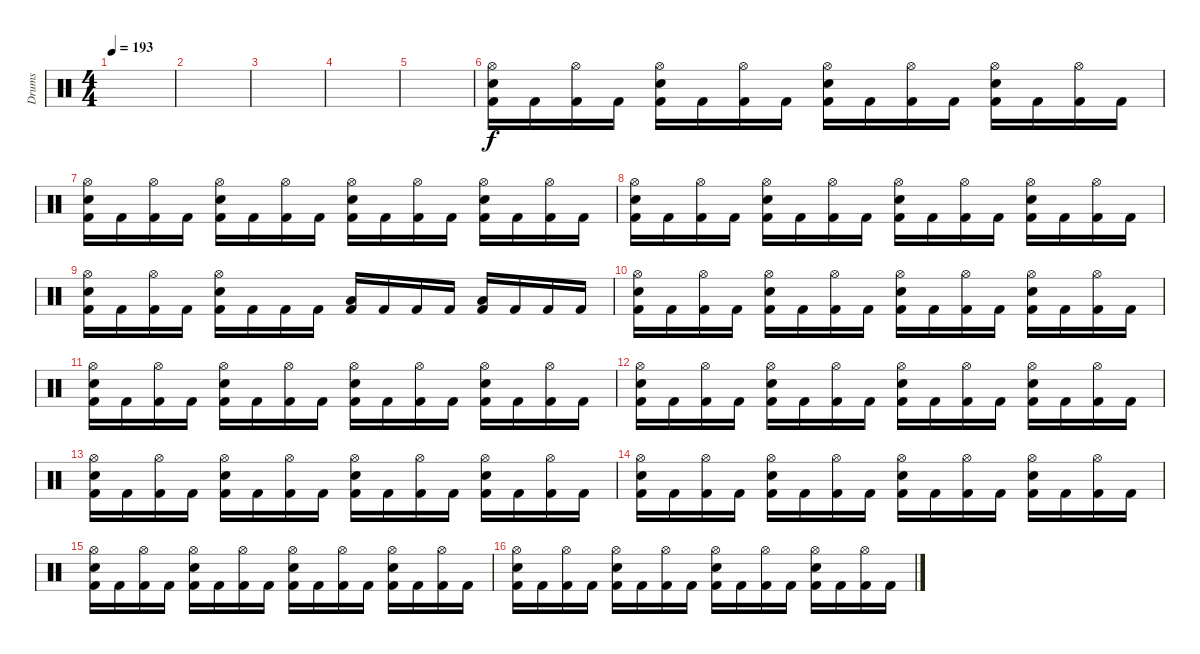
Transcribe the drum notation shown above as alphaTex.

\track ("Drums" "Drums") {instrument percussion}
\staff {score}
\articulation defaults
\ts (4 4)
\tempo 193
\clef neutral
\ks c
|
|
|
|
|
("Hi-Hat (open)" "Snare (hit) 2" "Kick (hit) 2").16 "Kick (hit) 2".16 ("Hi-Hat (open)" "Kick (hit) 2").16 "Kick (hit) 2".16 ("Hi-Hat (open)" "Snare (hit) 2" "Kick (hit) 2").16 "Kick (hit) 2".16 ("Hi-Hat (open)" "Kick (hit) 2").16 "Kick (hit) 2".16 ("Hi-Hat (open)" "Snare (hit) 2" "Kick (hit) 2").16 "Kick (hit) 2".16 ("Hi-Hat (open)" "Kick (hit) 2").16 "Kick (hit) 2".16 ("Hi-Hat (open)" "Snare (hit) 2" "Kick (hit) 2").16 "Kick (hit) 2".16 ("Hi-Hat (open)" "Kick (hit) 2").16 "Kick (hit) 2".16 |
("Hi-Hat (open)" "Snare (hit) 2" "Kick (hit) 2").16 "Kick (hit) 2".16 ("Hi-Hat (open)" "Kick (hit) 2").16 "Kick (hit) 2".16 ("Hi-Hat (open)" "Snare (hit) 2" "Kick (hit) 2").16 "Kick (hit) 2".16 ("Hi-Hat (open)" "Kick (hit) 2").16 "Kick (hit) 2".16 ("Hi-Hat (open)" "Snare (hit) 2" "Kick (hit) 2").16 "Kick (hit) 2".16 ("Hi-Hat (open)" "Kick (hit) 2").16 "Kick (hit) 2".16 ("Hi-Hat (open)" "Snare (hit) 2" "Kick (hit) 2").16 "Kick (hit) 2".16 ("Hi-Hat (open)" "Kick (hit) 2").16 "Kick (hit) 2".16 |
("Hi-Hat (open)" "Snare (hit) 2" "Kick (hit) 2").16 "Kick (hit) 2".16 ("Hi-Hat (open)" "Kick (hit) 2").16 "Kick (hit) 2".16 ("Hi-Hat (open)" "Snare (hit) 2" "Kick (hit) 2").16 "Kick (hit) 2".16 ("Hi-Hat (open)" "Kick (hit) 2").16 "Kick (hit) 2".16 ("Hi-Hat (open)" "Snare (hit) 2" "Kick (hit) 2").16 "Kick (hit) 2".16 ("Hi-Hat (open)" "Kick (hit) 2").16 "Kick (hit) 2".16 ("Hi-Hat (open)" "Snare (hit) 2" "Kick (hit) 2").16 "Kick (hit) 2".16 ("Hi-Hat (open)" "Kick (hit) 2").16 "Kick (hit) 2".16 |
("Hi-Hat (open)" "Snare (hit) 2" "Kick (hit) 2").16 "Kick (hit) 2".16 ("Hi-Hat (open)" "Kick (hit) 2").16 "Kick (hit) 2".16 ("Hi-Hat (open)" "Snare (hit) 2" "Kick (hit) 2").16 "Kick (hit) 2".16 "Kick (hit) 2".16 "Kick (hit) 2".16 ("Low Tom (hit)" "Kick (hit) 2").16 "Kick (hit) 2".16 "Kick (hit) 2".16 "Kick (hit) 2".16 ("Low Tom (hit)" "Kick (hit) 2").16 "Kick (hit) 2".16 "Kick (hit) 2".16 "Kick (hit) 2".16 |
("Hi-Hat (open)" "Snare (hit) 2" "Kick (hit) 2").16 "Kick (hit) 2".16 ("Hi-Hat (open)" "Kick (hit) 2").16 "Kick (hit) 2".16 ("Hi-Hat (open)" "Snare (hit) 2" "Kick (hit) 2").16 "Kick (hit) 2".16 ("Hi-Hat (open)" "Kick (hit) 2").16 "Kick (hit) 2".16 ("Hi-Hat (open)" "Snare (hit) 2" "Kick (hit) 2").16 "Kick (hit) 2".16 ("Hi-Hat (open)" "Kick (hit) 2").16 "Kick (hit) 2".16 ("Hi-Hat (open)" "Snare (hit) 2" "Kick (hit) 2").16 "Kick (hit) 2".16 ("Hi-Hat (open)" "Kick (hit) 2").16 "Kick (hit) 2".16 |
("Hi-Hat (open)" "Snare (hit) 2" "Kick (hit) 2").16 "Kick (hit) 2".16 ("Hi-Hat (open)" "Kick (hit) 2").16 "Kick (hit) 2".16 ("Hi-Hat (open)" "Snare (hit) 2" "Kick (hit) 2").16 "Kick (hit) 2".16 ("Hi-Hat (open)" "Kick (hit) 2").16 "Kick (hit) 2".16 ("Hi-Hat (open)" "Snare (hit) 2" "Kick (hit) 2").16 "Kick (hit) 2".16 ("Hi-Hat (open)" "Kick (hit) 2").16 "Kick (hit) 2".16 ("Hi-Hat (open)" "Snare (hit) 2" "Kick (hit) 2").16 "Kick (hit) 2".16 ("Hi-Hat (open)" "Kick (hit) 2").16 "Kick (hit) 2".16 |
("Hi-Hat (open)" "Snare (hit) 2" "Kick (hit) 2").16 "Kick (hit) 2".16 ("Hi-Hat (open)" "Kick (hit) 2").16 "Kick (hit) 2".16 ("Hi-Hat (open)" "Snare (hit) 2" "Kick (hit) 2").16 "Kick (hit) 2".16 ("Hi-Hat (open)" "Kick (hit) 2").16 "Kick (hit) 2".16 ("Hi-Hat (open)" "Snare (hit) 2" "Kick (hit) 2").16 "Kick (hit) 2".16 ("Hi-Hat (open)" "Kick (hit) 2").16 "Kick (hit) 2".16 ("Hi-Hat (open)" "Snare (hit) 2" "Kick (hit) 2").16 "Kick (hit) 2".16 ("Hi-Hat (open)" "Kick (hit) 2").16 "Kick (hit) 2".16 |
("Hi-Hat (open)" "Snare (hit) 2" "Kick (hit) 2").16 "Kick (hit) 2".16 ("Hi-Hat (open)" "Kick (hit) 2").16 "Kick (hit) 2".16 ("Hi-Hat (open)" "Snare (hit) 2" "Kick (hit) 2").16 "Kick (hit) 2".16 ("Hi-Hat (open)" "Kick (hit) 2").16 "Kick (hit) 2".16 ("Hi-Hat (open)" "Snare (hit) 2" "Kick (hit) 2").16 "Kick (hit) 2".16 ("Hi-Hat (open)" "Kick (hit) 2").16 "Kick (hit) 2".16 ("Hi-Hat (open)" "Snare (hit) 2" "Kick (hit) 2").16 "Kick (hit) 2".16 ("Hi-Hat (open)" "Kick (hit) 2").16 "Kick (hit) 2".16 |
("Hi-Hat (open)" "Snare (hit) 2" "Kick (hit) 2").16 "Kick (hit) 2".16 ("Hi-Hat (open)" "Kick (hit) 2").16 "Kick (hit) 2".16 ("Hi-Hat (open)" "Snare (hit) 2" "Kick (hit) 2").16 "Kick (hit) 2".16 ("Hi-Hat (open)" "Kick (hit) 2").16 "Kick (hit) 2".16 ("Hi-Hat (open)" "Snare (hit) 2" "Kick (hit) 2").16 "Kick (hit) 2".16 ("Hi-Hat (open)" "Kick (hit) 2").16 "Kick (hit) 2".16 ("Hi-Hat (open)" "Snare (hit) 2" "Kick (hit) 2").16 "Kick (hit) 2".16 ("Hi-Hat (open)" "Kick (hit) 2").16 "Kick (hit) 2".16 |
("Hi-Hat (open)" "Snare (hit) 2" "Kick (hit) 2").16 "Kick (hit) 2".16 ("Hi-Hat (open)" "Kick (hit) 2").16 "Kick (hit) 2".16 ("Hi-Hat (open)" "Snare (hit) 2" "Kick (hit) 2").16 "Kick (hit) 2".16 ("Hi-Hat (open)" "Kick (hit) 2").16 "Kick (hit) 2".16 ("Hi-Hat (open)" "Snare (hit) 2" "Kick (hit) 2").16 "Kick (hit) 2".16 ("Hi-Hat (open)" "Kick (hit) 2").16 "Kick (hit) 2".16 ("Hi-Hat (open)" "Snare (hit) 2" "Kick (hit) 2").16 "Kick (hit) 2".16 ("Hi-Hat (open)" "Kick (hit) 2").16 "Kick (hit) 2".16 |
("Hi-Hat (open)" "Snare (hit) 2" "Kick (hit) 2").16 "Kick (hit) 2".16 ("Hi-Hat (open)" "Kick (hit) 2").16 "Kick (hit) 2".16 ("Hi-Hat (open)" "Snare (hit) 2" "Kick (hit) 2").16 "Kick (hit) 2".16 ("Hi-Hat (open)" "Kick (hit) 2").16 "Kick (hit) 2".16 ("Hi-Hat (open)" "Snare (hit) 2" "Kick (hit) 2").16 "Kick (hit) 2".16 ("Hi-Hat (open)" "Kick (hit) 2").16 "Kick (hit) 2".16 ("Hi-Hat (open)" "Snare (hit) 2" "Kick (hit) 2").16 "Kick (hit) 2".16 ("Hi-Hat (open)" "Kick (hit) 2").16 "Kick (hit) 2".16
